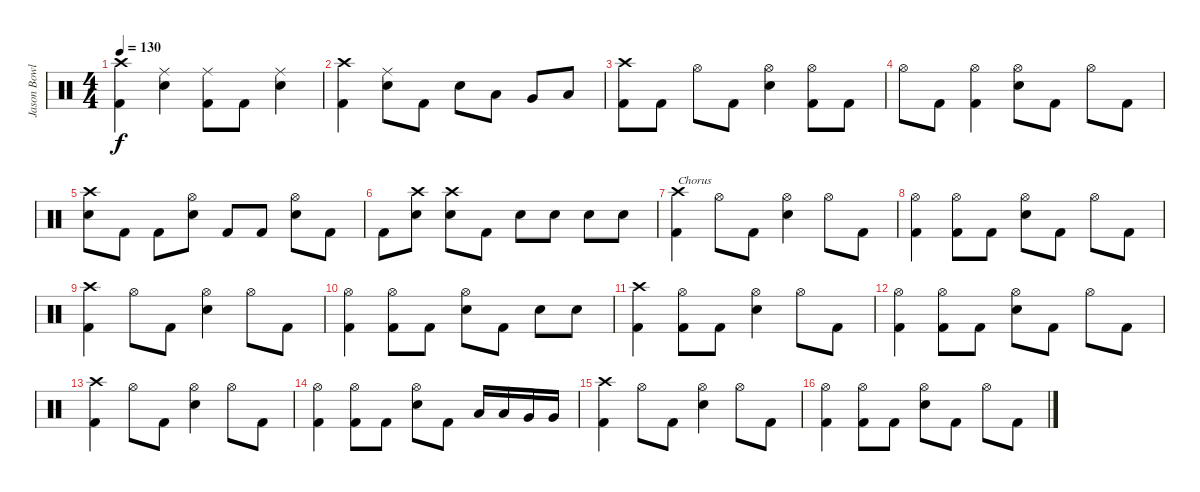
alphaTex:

\track ("Jason Bowld" "Jason Bowl") {instrument percussion}
\staff {score}
\articulation defaults
\ts (4 4)
\tempo 130
\clef neutral
\ks c
("Crash high (hit)" "Kick (hit) 2").4{dy f} ("Ride (middle)" "Snare (hit) 2").4 ("Ride (middle)" "Kick (hit) 2").8 "Kick (hit) 2".8 ("Ride (middle)" "Snare (hit) 2").4 |
("Crash high (hit)" "Kick (hit) 2").4 ("Ride (middle)" "Snare (hit) 2").8 "Kick (hit) 2".8 "Snare (hit) 2".8 "Low Tom (hit)".8 "Very Low Tom (hit)".8 "Low Floor Tom (hit)".8 |
("Crash high (hit)" "Kick (hit) 2").8 "Kick (hit) 2".8 "Hi-Hat (open)".8 "Kick (hit) 2".8 ("Hi-Hat (open)" "Snare (hit) 2").4 ("Hi-Hat (open)" "Kick (hit) 2").8 "Kick (hit) 2".8 |
"Hi-Hat (open)".8 "Kick (hit) 2".8 ("Hi-Hat (open)" "Kick (hit) 2").4 ("Hi-Hat (open)" "Snare (hit) 2").8 "Kick (hit) 2".8 "Hi-Hat (open)".8 "Kick (hit) 2".8 |
("Crash high (hit)" "Snare (hit) 2").8 "Kick (hit) 2".8 "Kick (hit) 2".8 ("Hi-Hat (open)" "Snare (hit) 2").8 "Kick (hit) 2".8 "Kick (hit) 2".8 ("Hi-Hat (open)" "Snare (hit) 2").8 "Kick (hit) 2".8 |
"Kick (hit) 2".8 ("Crash high (hit)" "Snare (hit) 2").8 ("Crash high (hit)" "Snare (hit) 2").8 "Kick (hit) 2".8 "Snare (hit) 2".8 "Snare (hit) 2".8 "Snare (hit) 2".8 "Snare (hit) 2".8 |
("Crash high (hit)" "Kick (hit) 2").4{txt "Chorus"} "Hi-Hat (open)".8 "Kick (hit) 2".8 ("Hi-Hat (open)" "Snare (hit) 2").4 "Hi-Hat (open)".8 "Kick (hit) 2".8 |
("Hi-Hat (open)" "Kick (hit) 2").4 ("Hi-Hat (open)" "Kick (hit) 2").8 "Kick (hit) 2".8 ("Hi-Hat (open)" "Snare (hit) 2").8 "Kick (hit) 2".8 "Hi-Hat (open)".8 "Kick (hit) 2".8 |
("Crash high (hit)" "Kick (hit) 2").4 "Hi-Hat (open)".8 "Kick (hit) 2".8 ("Hi-Hat (open)" "Snare (hit) 2").4 "Hi-Hat (open)".8 "Kick (hit) 2".8 |
("Hi-Hat (open)" "Kick (hit) 2").4 ("Hi-Hat (open)" "Kick (hit) 2").8 "Kick (hit) 2".8 ("Hi-Hat (open)" "Snare (hit) 2").8 "Kick (hit) 2".8 "Snare (hit) 2".8 "Snare (hit) 2".8 |
("Crash high (hit)" "Kick (hit) 2").4 ("Hi-Hat (open)" "Kick (hit) 2").8 "Kick (hit) 2".8 ("Hi-Hat (open)" "Snare (hit) 2").4 "Hi-Hat (open)".8 "Kick (hit) 2".8 |
("Hi-Hat (open)" "Kick (hit) 2").4 ("Hi-Hat (open)" "Kick (hit) 2").8 "Kick (hit) 2".8 ("Hi-Hat (open)" "Snare (hit) 2").8 "Kick (hit) 2".8 "Hi-Hat (open)".8 "Kick (hit) 2".8 |
("Crash high (hit)" "Kick (hit) 2").4 "Hi-Hat (open)".8 "Kick (hit) 2".8 ("Hi-Hat (open)" "Snare (hit) 2").4 "Hi-Hat (open)".8 "Kick (hit) 2".8 |
("Hi-Hat (open)" "Kick (hit) 2").4 ("Hi-Hat (open)" "Kick (hit) 2").8 "Kick (hit) 2".8 ("Hi-Hat (open)" "Snare (hit) 2").8 "Kick (hit) 2".8 "Low Tom (hit)".16 "Low Tom (hit)".16 "Very Low Tom (hit)".16 "Very Low Tom (hit)".16 |
("Crash high (hit)" "Kick (hit) 2").4 "Hi-Hat (open)".8 "Kick (hit) 2".8 ("Hi-Hat (open)" "Snare (hit) 2").4 "Hi-Hat (open)".8 "Kick (hit) 2".8 |
("Hi-Hat (open)" "Kick (hit) 2").4 ("Hi-Hat (open)" "Kick (hit) 2").8 "Kick (hit) 2".8 ("Hi-Hat (open)" "Snare (hit) 2").8 "Kick (hit) 2".8 "Hi-Hat (open)".8 "Kick (hit) 2".8
